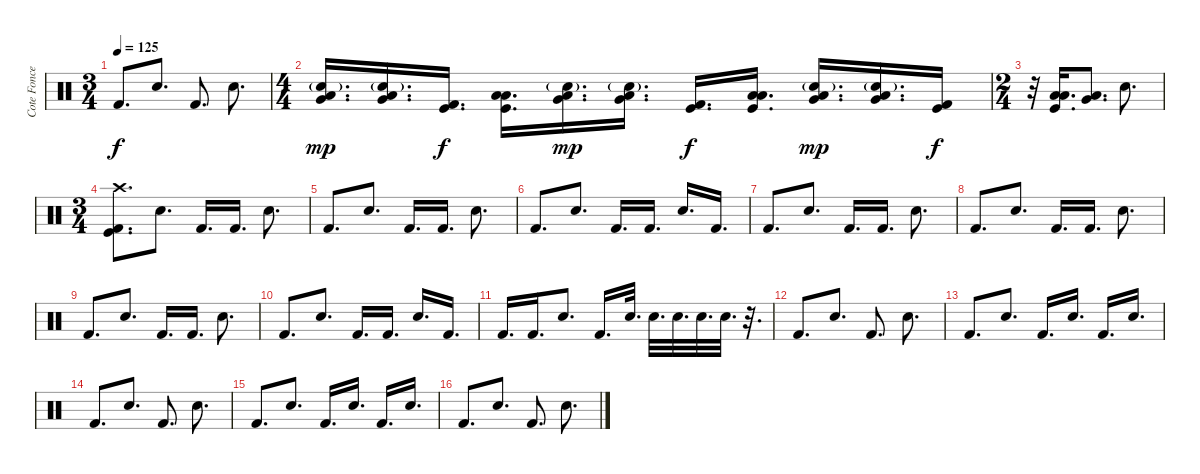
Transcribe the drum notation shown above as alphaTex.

\track ("Cote Foncea" "Cote Fonce") {instrument percussion}
\staff {score}
\articulation defaults
\ts (3 4)
\tempo 125
\clef neutral
\ks c "Kick (hit) 2".8{d dy f} "Snare (hit) 2".8{d} "Kick (hit) 2".8{d} "Snare (hit) 2".8{d}
|
\ts (4 4)
("Very Low Tom (hit)" "Low Floor Tom (hit)" "Snare (hit) 2"{g}).16{d dy mp} ("Very Low Tom (hit)" "Low Floor Tom (hit)" "Snare (hit) 2"{g}).16{d} ("Kick (hit) 2" "Kick (hit)").16{d dy f} ("Low Tom (hit)" "Low Floor Tom (hit)" "Kick (hit)").16{d} ("Very Low Tom (hit)" "Low Floor Tom (hit)" "Snare (hit) 2"{g}).16{d dy mp} ("Very Low Tom (hit)" "Low Floor Tom (hit)" "Snare (hit) 2"{g}).16{d} ("Kick (hit) 2" "Kick (hit)").16{d dy f} ("Low Tom (hit)" "Low Floor Tom (hit)" "Kick (hit)").16{d} ("Very Low Tom (hit)" "Low Floor Tom (hit)" "Snare (hit) 2"{g}).16{d dy mp} ("Very Low Tom (hit)" "Low Floor Tom (hit)" "Snare (hit) 2"{g}).16{d} ("Kick (hit) 2" "Kick (hit)").16{dy f} |
\ts (2 4)
r.32 ("Low Tom (hit)" "Low Floor Tom (hit)" "Kick (hit)").16{d} ("Very Low Tom (hit)" "Low Floor Tom (hit)").8{d} "Snare (hit) 2".8{d} |
\ts (3 4)
("Crash high (hit)" "Kick (hit) 2" "Kick (hit)").8{d} "Snare (hit) 2".8{d} "Kick (hit) 2".16{d} "Kick (hit) 2".16{d} "Snare (hit) 2".8{d} |
"Kick (hit) 2".8{d} "Snare (hit) 2".8{d} "Kick (hit) 2".16{d} "Kick (hit) 2".16{d} "Snare (hit) 2".8{d} |
"Kick (hit) 2".8{d} "Snare (hit) 2".8{d} "Kick (hit) 2".16{d} "Kick (hit) 2".16{d} "Snare (hit) 2".16{d} "Kick (hit) 2".16{d} |
"Kick (hit) 2".8{d} "Snare (hit) 2".8{d} "Kick (hit) 2".16{d} "Kick (hit) 2".16{d} "Snare (hit) 2".8{d} |
"Kick (hit) 2".8{d} "Snare (hit) 2".8{d} "Kick (hit) 2".16{d} "Kick (hit) 2".16{d} "Snare (hit) 2".8{d} |
"Kick (hit) 2".8{d} "Snare (hit) 2".8{d} "Kick (hit) 2".16{d} "Kick (hit) 2".16{d} "Snare (hit) 2".8{d} |
"Kick (hit) 2".8{d} "Snare (hit) 2".8{d} "Kick (hit) 2".16{d} "Kick (hit) 2".16{d} "Snare (hit) 2".16{d} "Kick (hit) 2".16{d} |
"Kick (hit) 2".16{d} "Kick (hit) 2".16{d} "Snare (hit) 2".8{d} "Kick (hit) 2".16{d} "Snare (hit) 2".32{d} "Snare (hit) 2".32{d} "Snare (hit) 2".32{d} "Snare (hit) 2".32{d} "Snare (hit) 2".32{d} r.32{d} |
"Kick (hit) 2".8{d} "Snare (hit) 2".8{d} "Kick (hit) 2".8{d} "Snare (hit) 2".8{d} |
"Kick (hit) 2".8{d} "Snare (hit) 2".8{d} "Kick (hit) 2".16{d} "Snare (hit) 2".16{d} "Kick (hit) 2".16{d} "Snare (hit) 2".16{d} |
"Kick (hit) 2".8{d} "Snare (hit) 2".8{d} "Kick (hit) 2".8{d} "Snare (hit) 2".8{d} |
"Kick (hit) 2".8{d} "Snare (hit) 2".8{d} "Kick (hit) 2".16{d} "Snare (hit) 2".16{d} "Kick (hit) 2".16{d} "Snare (hit) 2".16{d} |
"Kick (hit) 2".8{d} "Snare (hit) 2".8{d} "Kick (hit) 2".8{d} "Snare (hit) 2".8{d}
